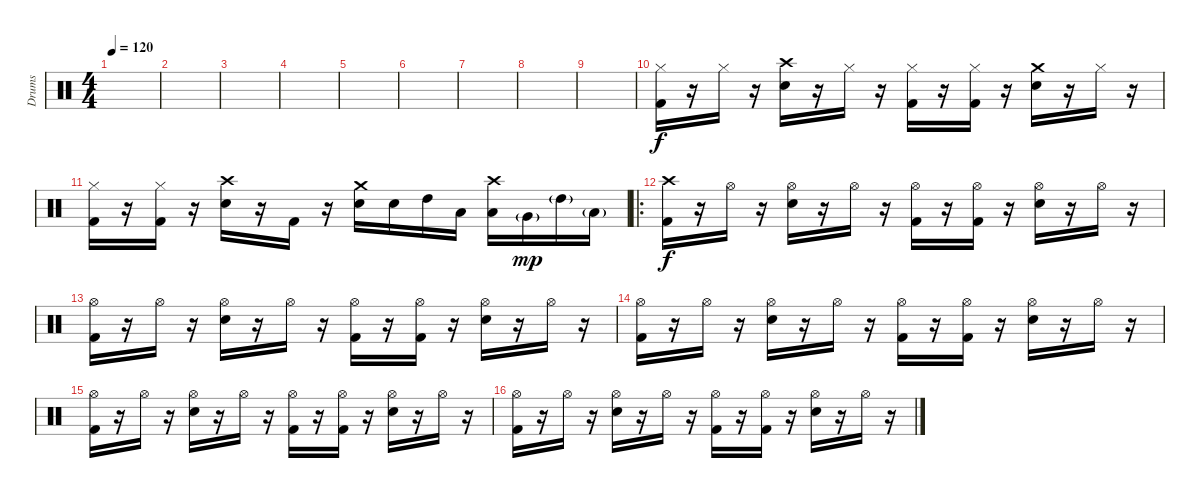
\track ("Drums" "Drums") {instrument percussion}
\staff {score}
\articulation defaults
\ts (4 4)
\tempo 120
\clef neutral
\ks c
|
|
|
|
|
|
|
|
|
("Kick (hit) 2" "Hi-Hat (closed)").16 r.16 "Hi-Hat (closed)".16 r.16 ("Electric Snare (hit)" "Crash high (hit)").16 r.16 "Hi-Hat (closed)".16 r.16 ("Kick (hit) 2" "Hi-Hat (closed)").16 r.16 ("Kick (hit) 2" "Hi-Hat (closed)").16 r.16 ("Electric Snare (hit)" "Crash medium (hit)").16 r.16 "Hi-Hat (closed)".16 r.16 |
("Kick (hit) 2" "Hi-Hat (closed)").16 r.16 ("Kick (hit) 2" "Hi-Hat (closed)").16 r.16 ("Electric Snare (hit)" "Crash high (hit)").16 r.16 "Kick (hit) 2".16 r.16 ("Electric Snare (hit)" "Crash medium (hit)").16 "Electric Snare (hit)".16 "High Tom (hit)".16 "Low Tom (hit)".16 ("Low Tom (hit)" "Crash high (hit)").16 "Very Low Tom (hit)"{g}.16{dy mp} "High Tom (hit)"{g}.16 "Low Tom (hit)"{g}.16 |
\ro
("Kick (hit) 2" "Crash high (hit)").16{dy f} r.16 "Hi-Hat (open)".16 r.16 ("Electric Snare (hit)" "Hi-Hat (open)").16 r.16 "Hi-Hat (open)".16 r.16 ("Kick (hit) 2" "Hi-Hat (open)").16 r.16 ("Kick (hit) 2" "Hi-Hat (open)").16 r.16 ("Electric Snare (hit)" "Hi-Hat (open)").16 r.16 "Hi-Hat (open)".16 r.16 |
("Kick (hit) 2" "Hi-Hat (open)").16 r.16 "Hi-Hat (open)".16 r.16 ("Electric Snare (hit)" "Hi-Hat (open)").16 r.16 "Hi-Hat (open)".16 r.16 ("Kick (hit) 2" "Hi-Hat (open)").16 r.16 ("Kick (hit) 2" "Hi-Hat (open)").16 r.16 ("Electric Snare (hit)" "Hi-Hat (open)").16 r.16 "Hi-Hat (open)".16 r.16 |
("Kick (hit) 2" "Hi-Hat (open)").16 r.16 "Hi-Hat (open)".16 r.16 ("Electric Snare (hit)" "Hi-Hat (open)").16 r.16 "Hi-Hat (open)".16 r.16 ("Kick (hit) 2" "Hi-Hat (open)").16 r.16 ("Kick (hit) 2" "Hi-Hat (open)").16 r.16 ("Electric Snare (hit)" "Hi-Hat (open)").16 r.16 "Hi-Hat (open)".16 r.16 |
("Kick (hit) 2" "Hi-Hat (open)").16 r.16 "Hi-Hat (open)".16 r.16 ("Electric Snare (hit)" "Hi-Hat (open)").16 r.16 "Hi-Hat (open)".16 r.16 ("Kick (hit) 2" "Hi-Hat (open)").16 r.16 ("Kick (hit) 2" "Hi-Hat (open)").16 r.16 ("Electric Snare (hit)" "Hi-Hat (open)").16 r.16 "Hi-Hat (open)".16 r.16 |
("Kick (hit) 2" "Hi-Hat (open)").16 r.16 "Hi-Hat (open)".16 r.16 ("Electric Snare (hit)" "Hi-Hat (open)").16 r.16 "Hi-Hat (open)".16 r.16 ("Kick (hit) 2" "Hi-Hat (open)").16 r.16 ("Kick (hit) 2" "Hi-Hat (open)").16 r.16 ("Electric Snare (hit)" "Hi-Hat (open)").16 r.16 "Hi-Hat (open)".16 r.16
